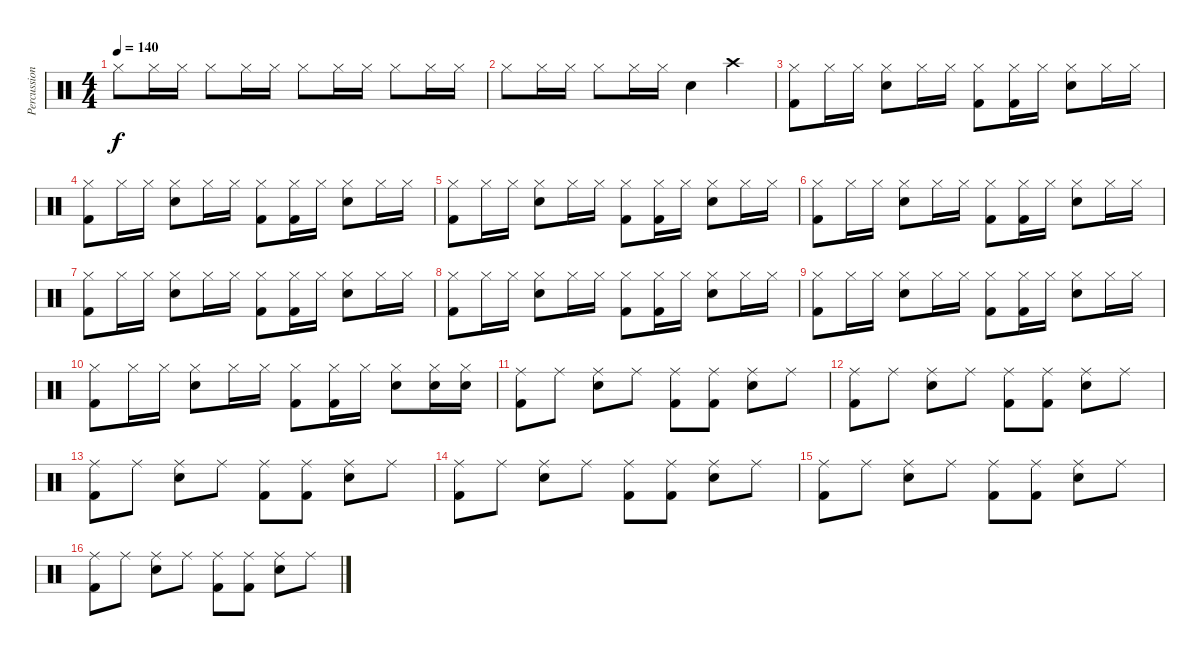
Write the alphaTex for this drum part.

\track ("Percussion" "Percussion") {instrument percussion}
\staff {score}
\articulation defaults
\ts (4 4)
\tempo 140
\clef neutral
\ks c "Hi-Hat (closed)".8{dy f} "Hi-Hat (closed)".16 "Hi-Hat (closed)".16 "Hi-Hat (closed)".8 "Hi-Hat (closed)".16 "Hi-Hat (closed)".16 "Hi-Hat (closed)".8 "Hi-Hat (closed)".16 "Hi-Hat (closed)".16 "Hi-Hat (closed)".8 "Hi-Hat (closed)".16 "Hi-Hat (closed)".16
|
"Hi-Hat (closed)".8 "Hi-Hat (closed)".16 "Hi-Hat (closed)".16 "Hi-Hat (closed)".8 "Hi-Hat (closed)".16 "Hi-Hat (closed)".16 "Snare (hit) 2".4 "Crash high (hit)".4 |
("Hi-Hat (closed)" "Kick (hit) 2").8 "Hi-Hat (closed)".16 "Hi-Hat (closed)".16 ("Hi-Hat (closed)" "Snare (hit) 2").8 "Hi-Hat (closed)".16 "Hi-Hat (closed)".16 ("Hi-Hat (closed)" "Kick (hit) 2").8 ("Hi-Hat (closed)" "Kick (hit) 2").16 "Hi-Hat (closed)".16 ("Hi-Hat (closed)" "Snare (hit) 2").8 "Hi-Hat (closed)".16 "Hi-Hat (closed)".16 |
("Hi-Hat (closed)" "Kick (hit) 2").8 "Hi-Hat (closed)".16 "Hi-Hat (closed)".16 ("Hi-Hat (closed)" "Snare (hit) 2").8 "Hi-Hat (closed)".16 "Hi-Hat (closed)".16 ("Hi-Hat (closed)" "Kick (hit) 2").8 ("Hi-Hat (closed)" "Kick (hit) 2").16 "Hi-Hat (closed)".16 ("Hi-Hat (closed)" "Snare (hit) 2").8 "Hi-Hat (closed)".16 "Hi-Hat (closed)".16 |
("Hi-Hat (closed)" "Kick (hit) 2").8 "Hi-Hat (closed)".16 "Hi-Hat (closed)".16 ("Hi-Hat (closed)" "Snare (hit) 2").8 "Hi-Hat (closed)".16 "Hi-Hat (closed)".16 ("Hi-Hat (closed)" "Kick (hit) 2").8 ("Hi-Hat (closed)" "Kick (hit) 2").16 "Hi-Hat (closed)".16 ("Hi-Hat (closed)" "Snare (hit) 2").8 "Hi-Hat (closed)".16 "Hi-Hat (closed)".16 |
("Hi-Hat (closed)" "Kick (hit) 2").8 "Hi-Hat (closed)".16 "Hi-Hat (closed)".16 ("Hi-Hat (closed)" "Snare (hit) 2").8 "Hi-Hat (closed)".16 "Hi-Hat (closed)".16 ("Hi-Hat (closed)" "Kick (hit) 2").8 ("Hi-Hat (closed)" "Kick (hit) 2").16 "Hi-Hat (closed)".16 ("Hi-Hat (closed)" "Snare (hit) 2").8 "Hi-Hat (closed)".16 "Hi-Hat (closed)".16 |
("Hi-Hat (closed)" "Kick (hit) 2").8 "Hi-Hat (closed)".16 "Hi-Hat (closed)".16 ("Hi-Hat (closed)" "Snare (hit) 2").8 "Hi-Hat (closed)".16 "Hi-Hat (closed)".16 ("Hi-Hat (closed)" "Kick (hit) 2").8 ("Hi-Hat (closed)" "Kick (hit) 2").16 "Hi-Hat (closed)".16 ("Hi-Hat (closed)" "Snare (hit) 2").8 "Hi-Hat (closed)".16 "Hi-Hat (closed)".16 |
("Hi-Hat (closed)" "Kick (hit) 2").8 "Hi-Hat (closed)".16 "Hi-Hat (closed)".16 ("Hi-Hat (closed)" "Snare (hit) 2").8 "Hi-Hat (closed)".16 "Hi-Hat (closed)".16 ("Hi-Hat (closed)" "Kick (hit) 2").8 ("Hi-Hat (closed)" "Kick (hit) 2").16 "Hi-Hat (closed)".16 ("Hi-Hat (closed)" "Snare (hit) 2").8 "Hi-Hat (closed)".16 "Hi-Hat (closed)".16 |
("Hi-Hat (closed)" "Kick (hit) 2").8 "Hi-Hat (closed)".16 "Hi-Hat (closed)".16 ("Hi-Hat (closed)" "Snare (hit) 2").8 "Hi-Hat (closed)".16 "Hi-Hat (closed)".16 ("Hi-Hat (closed)" "Kick (hit) 2").8 ("Hi-Hat (closed)" "Kick (hit) 2").16 "Hi-Hat (closed)".16 ("Hi-Hat (closed)" "Snare (hit) 2").8 "Hi-Hat (closed)".16 "Hi-Hat (closed)".16 |
("Hi-Hat (closed)" "Kick (hit) 2").8 "Hi-Hat (closed)".16 "Hi-Hat (closed)".16 ("Hi-Hat (closed)" "Snare (hit) 2").8 "Hi-Hat (closed)".16 "Hi-Hat (closed)".16 ("Hi-Hat (closed)" "Kick (hit) 2").8 ("Hi-Hat (closed)" "Kick (hit) 2").16 "Hi-Hat (closed)".16 ("Hi-Hat (closed)" "Snare (hit) 2").8 ("Hi-Hat (closed)" "Snare (hit) 2").16 ("Hi-Hat (closed)" "Snare (hit) 2").16 |
("Ride (middle)" "Kick (hit) 2").8 "Ride (middle)".8 ("Ride (middle)" "Snare (hit) 2").8 "Ride (middle)".8 ("Ride (middle)" "Kick (hit) 2").8 ("Ride (middle)" "Kick (hit) 2").8 ("Ride (middle)" "Snare (hit) 2").8 "Ride (middle)".8 |
("Ride (middle)" "Kick (hit) 2").8 "Ride (middle)".8 ("Ride (middle)" "Snare (hit) 2").8 "Ride (middle)".8 ("Ride (middle)" "Kick (hit) 2").8 ("Ride (middle)" "Kick (hit) 2").8 ("Ride (middle)" "Snare (hit) 2").8 "Ride (middle)".8 |
("Ride (middle)" "Kick (hit) 2").8 "Ride (middle)".8 ("Ride (middle)" "Snare (hit) 2").8 "Ride (middle)".8 ("Ride (middle)" "Kick (hit) 2").8 ("Ride (middle)" "Kick (hit) 2").8 ("Ride (middle)" "Snare (hit) 2").8 "Ride (middle)".8 |
("Ride (middle)" "Kick (hit) 2").8 "Ride (middle)".8 ("Ride (middle)" "Snare (hit) 2").8 "Ride (middle)".8 ("Ride (middle)" "Kick (hit) 2").8 ("Ride (middle)" "Kick (hit) 2").8 ("Ride (middle)" "Snare (hit) 2").8 "Ride (middle)".8 |
("Ride (middle)" "Kick (hit) 2").8 "Ride (middle)".8 ("Ride (middle)" "Snare (hit) 2").8 "Ride (middle)".8 ("Ride (middle)" "Kick (hit) 2").8 ("Ride (middle)" "Kick (hit) 2").8 ("Ride (middle)" "Snare (hit) 2").8 "Ride (middle)".8 |
("Ride (middle)" "Kick (hit) 2").8 "Ride (middle)".8 ("Ride (middle)" "Snare (hit) 2").8 "Ride (middle)".8 ("Ride (middle)" "Kick (hit) 2").8 ("Ride (middle)" "Kick (hit) 2").8 ("Ride (middle)" "Snare (hit) 2").8 "Ride (middle)".8
